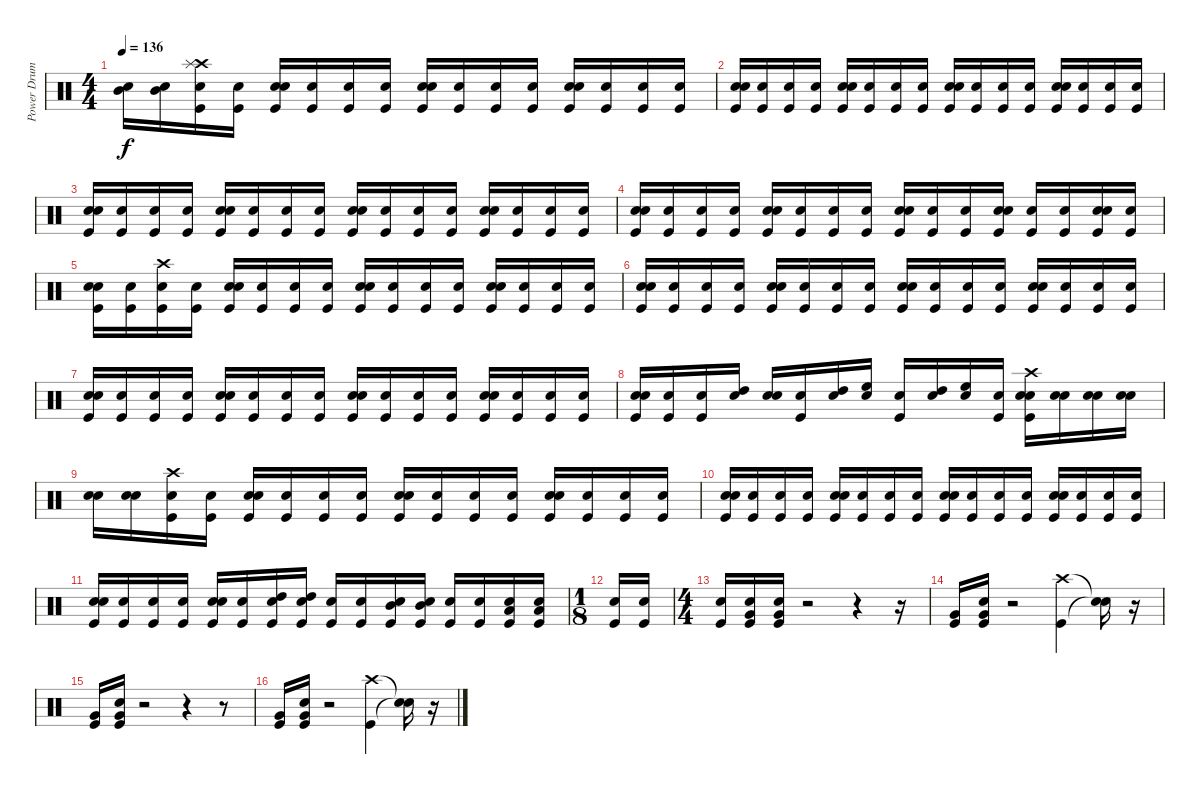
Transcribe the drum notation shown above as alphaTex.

\track ("Power Drums" "Power Drum") {instrument percussion}
\staff {score}
\articulation defaults
\ts (4 4)
\tempo 136
\clef neutral
\ks c
("Snare (hit)" "Mid Tom (hit)").16{dy f} ("Snare (hit)" "Mid Tom (hit)").16 ("Snare (hit)" "Kick (hit)" "Crash high (hit)" "Splash (hit)").16 ("Snare (hit)" "Kick (hit)").16 ("Snare (hit)" "Kick (hit)" "Snare (hit) 2").16 ("Snare (hit)" "Kick (hit)").16 ("Snare (hit)" "Kick (hit)").16 ("Snare (hit)" "Kick (hit)").16 ("Snare (hit)" "Kick (hit)" "Snare (hit) 2").16 ("Snare (hit)" "Kick (hit)").16 ("Snare (hit)" "Kick (hit)").16 ("Snare (hit)" "Kick (hit)").16 ("Snare (hit)" "Kick (hit)" "Snare (hit) 2").16 ("Snare (hit)" "Kick (hit)").16 ("Snare (hit)" "Kick (hit)").16 ("Snare (hit)" "Kick (hit)").16 |
("Snare (hit)" "Kick (hit)" "Snare (hit) 2").16 ("Snare (hit)" "Kick (hit)").16 ("Snare (hit)" "Kick (hit)").16 ("Snare (hit)" "Kick (hit)").16 ("Snare (hit)" "Kick (hit)" "Snare (hit) 2").16 ("Snare (hit)" "Kick (hit)").16 ("Snare (hit)" "Kick (hit)").16 ("Snare (hit)" "Kick (hit)").16 ("Snare (hit)" "Kick (hit)" "Snare (hit) 2").16 ("Snare (hit)" "Kick (hit)").16 ("Snare (hit)" "Kick (hit)").16 ("Snare (hit)" "Kick (hit)").16 ("Snare (hit)" "Kick (hit)" "Snare (hit) 2").16 ("Snare (hit)" "Kick (hit)").16 ("Snare (hit)" "Kick (hit)").16 ("Snare (hit)" "Kick (hit)").16 |
("Snare (hit)" "Kick (hit)" "Snare (hit) 2").16 ("Snare (hit)" "Kick (hit)").16 ("Snare (hit)" "Kick (hit)").16 ("Snare (hit)" "Kick (hit)").16 ("Snare (hit)" "Kick (hit)" "Snare (hit) 2").16 ("Snare (hit)" "Kick (hit)").16 ("Snare (hit)" "Kick (hit)").16 ("Snare (hit)" "Kick (hit)").16 ("Snare (hit)" "Kick (hit)" "Snare (hit) 2").16 ("Snare (hit)" "Kick (hit)").16 ("Snare (hit)" "Kick (hit)").16 ("Snare (hit)" "Kick (hit)").16 ("Snare (hit)" "Kick (hit)" "Snare (hit) 2").16 ("Snare (hit)" "Kick (hit)").16 ("Snare (hit)" "Kick (hit)").16 ("Snare (hit)" "Kick (hit)").16 |
("Snare (hit)" "Kick (hit)" "Snare (hit) 2").16 ("Snare (hit)" "Kick (hit)").16 ("Snare (hit)" "Kick (hit)").16 ("Snare (hit)" "Kick (hit)").16 ("Snare (hit)" "Kick (hit)" "Snare (hit) 2").16 ("Snare (hit)" "Kick (hit)").16 ("Snare (hit)" "Kick (hit)").16 ("Snare (hit)" "Kick (hit)").16 ("Snare (hit)" "Kick (hit)" "Snare (hit) 2").16 ("Snare (hit)" "Kick (hit)").16 ("Snare (hit)" "Kick (hit)").16 ("Snare (hit)" "Kick (hit)" "Snare (hit) 2").16 ("Snare (hit)" "Kick (hit)").16 ("Snare (hit)" "Kick (hit)").16 ("Snare (hit)" "Kick (hit)" "Snare (hit) 2").16 ("Snare (hit)" "Kick (hit)").16 |
("Snare (hit)" "Kick (hit)" "Snare (hit) 2").16 ("Snare (hit)" "Kick (hit)").16 ("Snare (hit)" "Kick (hit)" "Crash high (hit)").16 ("Snare (hit)" "Kick (hit)").16 ("Snare (hit)" "Kick (hit)" "Snare (hit) 2").16 ("Snare (hit)" "Kick (hit)").16 ("Snare (hit)" "Kick (hit)").16 ("Snare (hit)" "Kick (hit)").16 ("Snare (hit)" "Kick (hit)" "Snare (hit) 2").16 ("Snare (hit)" "Kick (hit)").16 ("Snare (hit)" "Kick (hit)").16 ("Snare (hit)" "Kick (hit)").16 ("Snare (hit)" "Kick (hit)" "Snare (hit) 2").16 ("Snare (hit)" "Kick (hit)").16 ("Snare (hit)" "Kick (hit)").16 ("Snare (hit)" "Kick (hit)").16 |
("Snare (hit)" "Kick (hit)" "Snare (hit) 2").16 ("Snare (hit)" "Kick (hit)").16 ("Snare (hit)" "Kick (hit)").16 ("Snare (hit)" "Kick (hit)").16 ("Snare (hit)" "Kick (hit)" "Snare (hit) 2").16 ("Snare (hit)" "Kick (hit)").16 ("Snare (hit)" "Kick (hit)").16 ("Snare (hit)" "Kick (hit)").16 ("Snare (hit)" "Kick (hit)" "Snare (hit) 2").16 ("Snare (hit)" "Kick (hit)").16 ("Snare (hit)" "Kick (hit)").16 ("Snare (hit)" "Kick (hit)").16 ("Snare (hit)" "Kick (hit)" "Snare (hit) 2").16 ("Snare (hit)" "Kick (hit)").16 ("Snare (hit)" "Kick (hit)").16 ("Snare (hit)" "Kick (hit)").16 |
("Snare (hit)" "Kick (hit)" "Snare (hit) 2").16 ("Snare (hit)" "Kick (hit)").16 ("Snare (hit)" "Kick (hit)").16 ("Snare (hit)" "Kick (hit)").16 ("Snare (hit)" "Kick (hit)" "Snare (hit) 2").16 ("Snare (hit)" "Kick (hit)").16 ("Snare (hit)" "Kick (hit)").16 ("Snare (hit)" "Kick (hit)").16 ("Snare (hit)" "Kick (hit)" "Snare (hit) 2").16 ("Snare (hit)" "Kick (hit)").16 ("Snare (hit)" "Kick (hit)").16 ("Snare (hit)" "Kick (hit)").16 ("Snare (hit)" "Kick (hit)" "Snare (hit) 2").16 ("Snare (hit)" "Kick (hit)").16 ("Snare (hit)" "Kick (hit)").16 ("Snare (hit)" "Kick (hit)").16 |
("Snare (hit)" "Kick (hit)" "Snare (hit) 2").16 ("Snare (hit)" "Kick (hit)").16 ("Snare (hit)" "Kick (hit)").16 ("Snare (hit)" "High Tom (hit)").16 ("Snare (hit)" "Snare (hit) 2").16 ("Snare (hit)" "Kick (hit)").16 ("Snare (hit)" "High Tom (hit)").16 ("Snare (hit)" "High Floor Tom (hit)").16 ("Snare (hit)" "Kick (hit)").16 ("Snare (hit)" "High Tom (hit)").16 ("Snare (hit)" "High Floor Tom (hit)").16 ("Snare (hit)" "Kick (hit)").16 ("Snare (hit)" "Kick (hit)" "Snare (hit) 2" "Crash high (hit)").16 ("Snare (hit)" "Snare (hit) 2").16 ("Snare (hit)" "Snare (hit) 2").16 ("Snare (hit)" "Snare (hit) 2").16 |
("Snare (hit)" "Snare (hit) 2").16 ("Snare (hit)" "Snare (hit) 2").16 ("Snare (hit)" "Kick (hit)" "Crash high (hit)").16 ("Snare (hit)" "Kick (hit)").16 ("Snare (hit)" "Kick (hit)" "Snare (hit) 2").16 ("Snare (hit)" "Kick (hit)").16 ("Snare (hit)" "Kick (hit)").16 ("Snare (hit)" "Kick (hit)").16 ("Snare (hit)" "Kick (hit)" "Snare (hit) 2").16 ("Snare (hit)" "Kick (hit)").16 ("Snare (hit)" "Kick (hit)").16 ("Snare (hit)" "Kick (hit)").16 ("Snare (hit)" "Kick (hit)" "Snare (hit) 2").16 ("Snare (hit)" "Kick (hit)").16 ("Snare (hit)" "Kick (hit)").16 ("Snare (hit)" "Kick (hit)").16 |
("Snare (hit)" "Kick (hit)" "Snare (hit) 2").16 ("Snare (hit)" "Kick (hit)").16 ("Snare (hit)" "Kick (hit)").16 ("Snare (hit)" "Kick (hit)").16 ("Snare (hit)" "Kick (hit)" "Snare (hit) 2").16 ("Snare (hit)" "Kick (hit)").16 ("Snare (hit)" "Kick (hit)").16 ("Snare (hit)" "Kick (hit)").16 ("Snare (hit)" "Kick (hit)" "Snare (hit) 2").16 ("Snare (hit)" "Kick (hit)").16 ("Snare (hit)" "Kick (hit)").16 ("Snare (hit)" "Kick (hit)").16 ("Snare (hit)" "Kick (hit)" "Snare (hit) 2").16 ("Snare (hit)" "Kick (hit)").16 ("Snare (hit)" "Kick (hit)").16 ("Snare (hit)" "Kick (hit)").16 |
("Snare (hit)" "Kick (hit)" "Snare (hit) 2").16 ("Snare (hit)" "Kick (hit)").16 ("Snare (hit)" "Kick (hit)").16 ("Snare (hit)" "Kick (hit)").16 ("Snare (hit)" "Kick (hit)" "Snare (hit) 2").16 ("Snare (hit)" "Kick (hit)").16 ("Snare (hit)" "Kick (hit)" "High Tom (hit)").16 ("Snare (hit)" "Kick (hit)" "High Tom (hit)").16 ("Snare (hit)" "Kick (hit)").16 ("Snare (hit)" "Kick (hit)").16 ("Snare (hit)" "Kick (hit)" "Mid Tom (hit)").16 ("Snare (hit)" "Kick (hit)" "Mid Tom (hit)").16 ("Snare (hit)" "Kick (hit)").16 ("Snare (hit)" "Kick (hit)").16 ("Snare (hit)" "Kick (hit)" "Low Tom (hit)").16 ("Snare (hit)" "Kick (hit)" "Low Tom (hit)").16 |
\ts (1 8)
("Snare (hit)" "Kick (hit)").16 ("Snare (hit)" "Kick (hit)").16 |
\ts (4 4)
("Snare (hit)" "Kick (hit)").16 ("Snare (hit)" "Kick (hit)" "Very Low Tom (hit)").16 ("Snare (hit)" "Kick (hit)" "Very Low Tom (hit)").16 r.2 r.4 r.16 |
("Kick (hit)" "Very Low Tom (hit)").16 ("Snare (hit)" "Kick (hit)" "Very Low Tom (hit)").16 r.2 ("Kick (hit)" "Crash high (hit)").4 ("Snare (hit)"{t} "Snare (hit)"{t}).16 r.16 |
("Kick (hit)" "Very Low Tom (hit)").16 ("Snare (hit)" "Kick (hit)" "Very Low Tom (hit)").16 r.2 r.4 r.8 |
("Kick (hit)" "Very Low Tom (hit)").16 ("Snare (hit)" "Kick (hit)" "Very Low Tom (hit)").16 r.2 ("Kick (hit)" "Crash high (hit)").4 ("Snare (hit)"{t} "Snare (hit)"{t}).16 r.16
